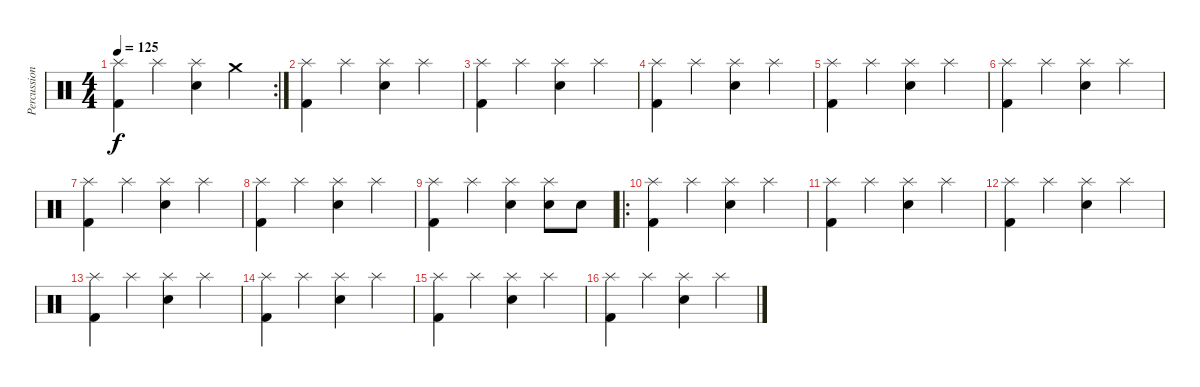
\track ("Percussions" "Percussion") {instrument percussion}
\staff {score}
\articulation defaults
\rc 2
\ts (4 4)
\tempo 125
\clef neutral
\ks c
("Splash (hit)" "Kick (hit) 2").4{dy f} "Splash (hit)".4 ("Splash (hit)" "Electric Snare (hit)").4 "Crash medium (hit)".4 |
("Splash (hit)" "Kick (hit) 2").4 "Splash (hit)".4 ("Splash (hit)" "Electric Snare (hit)").4 "Splash (hit)".4 |
("Splash (hit)" "Kick (hit) 2").4 "Splash (hit)".4 ("Splash (hit)" "Electric Snare (hit)").4 "Splash (hit)".4 |
("Splash (hit)" "Kick (hit) 2").4 "Splash (hit)".4 ("Splash (hit)" "Electric Snare (hit)").4 "Splash (hit)".4 |
("Splash (hit)" "Kick (hit) 2").4 "Splash (hit)".4 ("Splash (hit)" "Electric Snare (hit)").4 "Splash (hit)".4 |
("Splash (hit)" "Kick (hit) 2").4 "Splash (hit)".4 ("Splash (hit)" "Electric Snare (hit)").4 "Splash (hit)".4 |
("Splash (hit)" "Kick (hit) 2").4 "Splash (hit)".4 ("Splash (hit)" "Electric Snare (hit)").4 "Splash (hit)".4 |
("Splash (hit)" "Kick (hit) 2").4 "Splash (hit)".4 ("Splash (hit)" "Electric Snare (hit)").4 "Splash (hit)".4 |
("Splash (hit)" "Kick (hit) 2").4 "Splash (hit)".4 ("Splash (hit)" "Electric Snare (hit)").4 ("Splash (hit)" "Electric Snare (hit)").8 "Electric Snare (hit)".8 |
\ro
("Splash (hit)" "Kick (hit) 2").4 "Splash (hit)".4 ("Splash (hit)" "Electric Snare (hit)").4 "Splash (hit)".4 |
("Splash (hit)" "Kick (hit) 2").4 "Splash (hit)".4 ("Splash (hit)" "Electric Snare (hit)").4 "Splash (hit)".4 |
("Splash (hit)" "Kick (hit) 2").4 "Splash (hit)".4 ("Splash (hit)" "Electric Snare (hit)").4 "Splash (hit)".4 |
("Splash (hit)" "Kick (hit) 2").4 "Splash (hit)".4 ("Splash (hit)" "Electric Snare (hit)").4 "Splash (hit)".4 |
("Splash (hit)" "Kick (hit) 2").4 "Splash (hit)".4 ("Splash (hit)" "Electric Snare (hit)").4 "Splash (hit)".4 |
("Splash (hit)" "Kick (hit) 2").4 "Splash (hit)".4 ("Splash (hit)" "Electric Snare (hit)").4 "Splash (hit)".4 |
("Splash (hit)" "Kick (hit) 2").4 "Splash (hit)".4 ("Splash (hit)" "Electric Snare (hit)").4 "Splash (hit)".4
